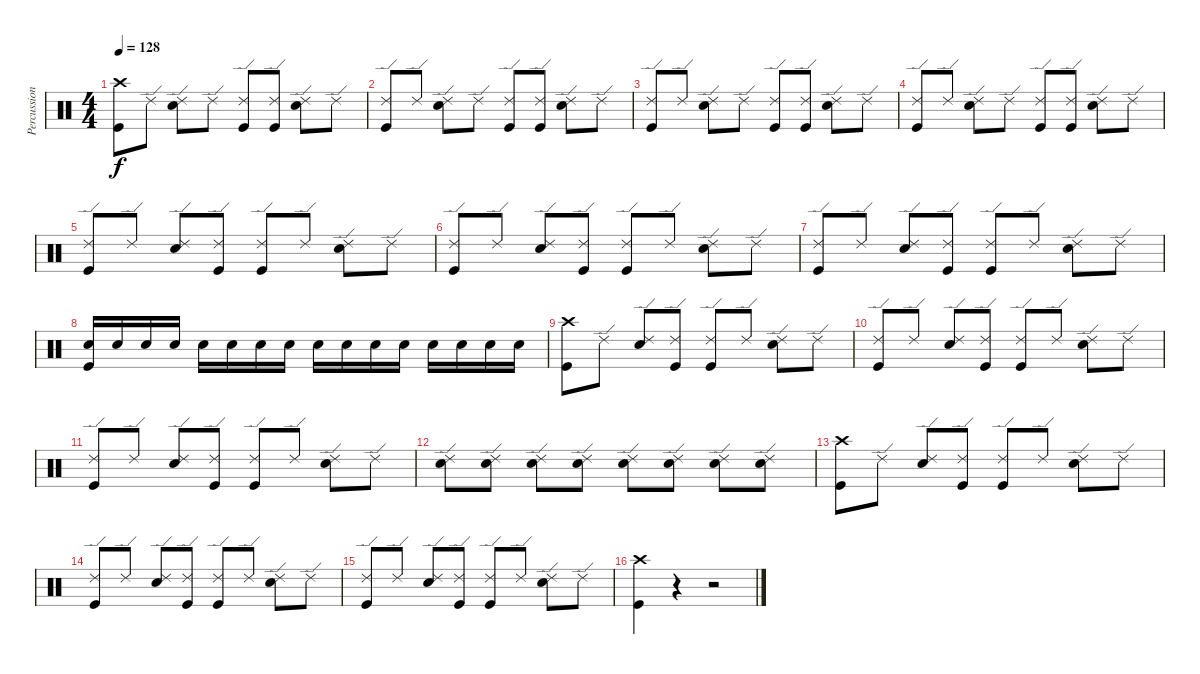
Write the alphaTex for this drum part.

\track ("Percussion" "Percussion") {instrument percussion}
\staff {score}
\articulation defaults
\ts (4 4)
\tempo 128
\clef neutral
\ks c
("Crash high (hit)" "Kick (hit)").8{dy f} "Ride (edge) 2".8 ("Ride (edge) 2" "Snare (hit) 2").8 "Ride (edge) 2".8 ("Ride (edge) 2" "Kick (hit)").8 ("Ride (edge) 2" "Kick (hit)").8 ("Ride (edge) 2" "Snare (hit) 2").8 "Ride (edge) 2".8 |
("Ride (edge) 2" "Kick (hit)").8 "Ride (edge) 2".8 ("Ride (edge) 2" "Snare (hit) 2").8 "Ride (edge) 2".8 ("Ride (edge) 2" "Kick (hit)").8 ("Ride (edge) 2" "Kick (hit)").8 ("Ride (edge) 2" "Snare (hit) 2").8 "Ride (edge) 2".8 |
("Ride (edge) 2" "Kick (hit)").8 "Ride (edge) 2".8 ("Ride (edge) 2" "Snare (hit) 2").8 "Ride (edge) 2".8 ("Ride (edge) 2" "Kick (hit)").8 ("Ride (edge) 2" "Kick (hit)").8 ("Ride (edge) 2" "Snare (hit) 2").8 "Ride (edge) 2".8 |
("Ride (edge) 2" "Kick (hit)").8 "Ride (edge) 2".8 ("Ride (edge) 2" "Snare (hit) 2").8 "Ride (edge) 2".8 ("Ride (edge) 2" "Kick (hit)").8 ("Ride (edge) 2" "Kick (hit)").8 ("Ride (edge) 2" "Snare (hit) 2").8 "Ride (edge) 2".8 |
("Ride (edge) 2" "Kick (hit)").8 "Ride (edge) 2".8 ("Ride (edge) 2" "Snare (hit) 2").8 ("Ride (edge) 2" "Kick (hit)").8 ("Ride (edge) 2" "Kick (hit)").8 "Ride (edge) 2".8 ("Ride (edge) 2" "Snare (hit) 2").8 "Ride (edge) 2".8 |
("Ride (edge) 2" "Kick (hit)").8 "Ride (edge) 2".8 ("Ride (edge) 2" "Snare (hit) 2").8 ("Ride (edge) 2" "Kick (hit)").8 ("Ride (edge) 2" "Kick (hit)").8 "Ride (edge) 2".8 ("Ride (edge) 2" "Snare (hit) 2").8 "Ride (edge) 2".8 |
("Ride (edge) 2" "Kick (hit)").8 "Ride (edge) 2".8 ("Ride (edge) 2" "Snare (hit) 2").8 ("Ride (edge) 2" "Kick (hit)").8 ("Ride (edge) 2" "Kick (hit)").8 "Ride (edge) 2".8 ("Ride (edge) 2" "Snare (hit) 2").8 "Ride (edge) 2".8 |
("Snare (hit) 2" "Kick (hit)").16 "Snare (hit) 2".16 "Snare (hit) 2".16 "Snare (hit) 2".16 "Snare (hit) 2".16 "Snare (hit) 2".16 "Snare (hit) 2".16 "Snare (hit) 2".16 "Snare (hit) 2".16 "Snare (hit) 2".16 "Snare (hit) 2".16 "Snare (hit) 2".16 "Snare (hit) 2".16 "Snare (hit) 2".16 "Snare (hit) 2".16 "Snare (hit) 2".16 |
("Crash high (hit)" "Kick (hit)").8 "Ride (edge) 2".8 ("Ride (edge) 2" "Snare (hit) 2").8 ("Ride (edge) 2" "Kick (hit)").8 ("Ride (edge) 2" "Kick (hit)").8 "Ride (edge) 2".8 ("Ride (edge) 2" "Snare (hit) 2").8 "Ride (edge) 2".8 |
("Ride (edge) 2" "Kick (hit)").8 "Ride (edge) 2".8 ("Ride (edge) 2" "Snare (hit) 2").8 ("Ride (edge) 2" "Kick (hit)").8 ("Ride (edge) 2" "Kick (hit)").8 "Ride (edge) 2".8 ("Ride (edge) 2" "Snare (hit) 2").8 "Ride (edge) 2".8 |
("Ride (edge) 2" "Kick (hit)").8 "Ride (edge) 2".8 ("Ride (edge) 2" "Snare (hit) 2").8 ("Ride (edge) 2" "Kick (hit)").8 ("Ride (edge) 2" "Kick (hit)").8 "Ride (edge) 2".8 ("Ride (edge) 2" "Snare (hit) 2").8 "Ride (edge) 2".8 |
("Ride (edge) 2" "Snare (hit) 2").8 ("Ride (edge) 2" "Snare (hit) 2").8 ("Ride (edge) 2" "Snare (hit) 2").8 ("Ride (edge) 2" "Snare (hit) 2").8 ("Ride (edge) 2" "Snare (hit) 2").8 ("Ride (edge) 2" "Snare (hit) 2").8 ("Ride (edge) 2" "Snare (hit) 2").8 ("Ride (edge) 2" "Snare (hit) 2").8 |
("Crash high (hit)" "Kick (hit)").8 "Ride (edge) 2".8 ("Ride (edge) 2" "Snare (hit) 2").8 ("Ride (edge) 2" "Kick (hit)").8 ("Ride (edge) 2" "Kick (hit)").8 "Ride (edge) 2".8 ("Ride (edge) 2" "Snare (hit) 2").8 "Ride (edge) 2".8 |
("Ride (edge) 2" "Kick (hit)").8 "Ride (edge) 2".8 ("Ride (edge) 2" "Snare (hit) 2").8 ("Ride (edge) 2" "Kick (hit)").8 ("Ride (edge) 2" "Kick (hit)").8 "Ride (edge) 2".8 ("Ride (edge) 2" "Snare (hit) 2").8 "Ride (edge) 2".8 |
("Ride (edge) 2" "Kick (hit)").8 "Ride (edge) 2".8 ("Ride (edge) 2" "Snare (hit) 2").8 ("Ride (edge) 2" "Kick (hit)").8 ("Ride (edge) 2" "Kick (hit)").8 "Ride (edge) 2".8 ("Ride (edge) 2" "Snare (hit) 2").8 "Ride (edge) 2".8 |
("Crash high (hit)" "Kick (hit)").4 r.4 r.2
